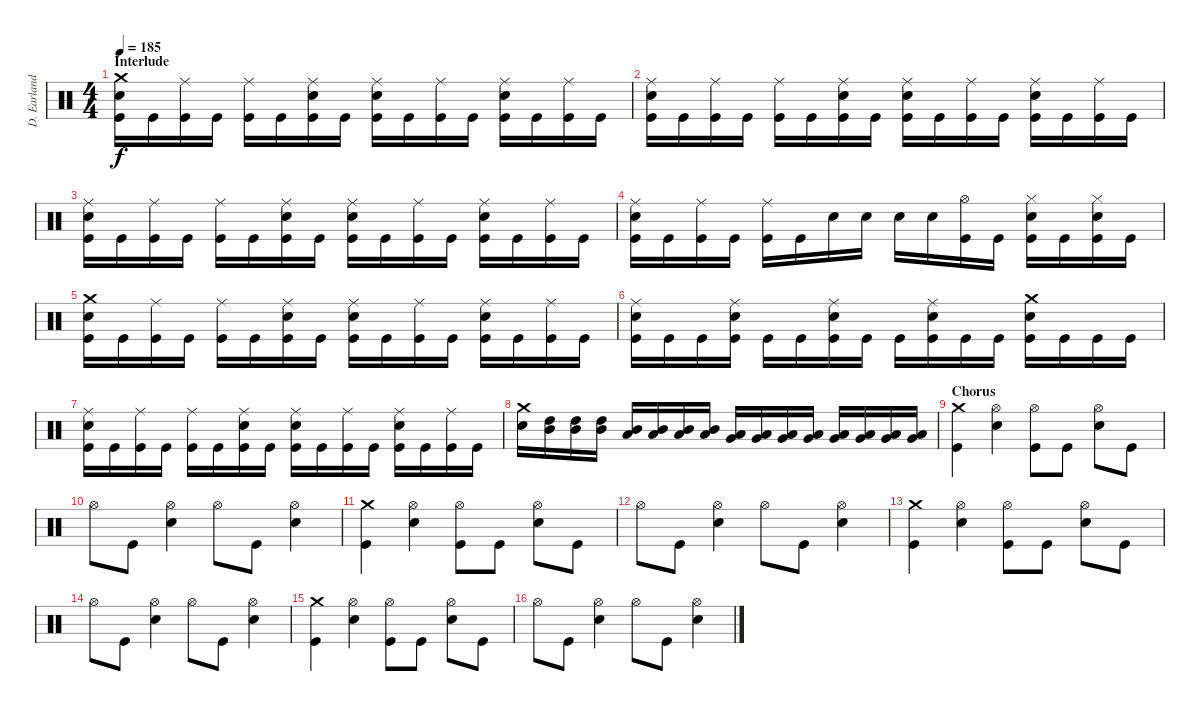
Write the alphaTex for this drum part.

\track ("D. Earlanddson" "D. Earland") {instrument percussion}
\staff {score}
\articulation defaults
\ts (4 4)
\section ("" "Interlude")
\tempo 185
\clef neutral
\ks c
("Crash medium (hit)" "Electric Snare (hit)" "Kick (hit)").16{dy f} "Kick (hit)".16 ("Ride (middle)" "Kick (hit)").16 "Kick (hit)".16 ("Ride (middle)" "Kick (hit)").16 "Kick (hit)".16 ("Ride (middle)" "Electric Snare (hit)" "Kick (hit)").16 "Kick (hit)".16 ("Ride (middle)" "Electric Snare (hit)" "Kick (hit)").16 "Kick (hit)".16 ("Ride (middle)" "Kick (hit)").16 "Kick (hit)".16 ("Ride (middle)" "Electric Snare (hit)" "Kick (hit)").16 "Kick (hit)".16 ("Ride (middle)" "Kick (hit)").16 "Kick (hit)".16 |
("Ride (middle)" "Electric Snare (hit)" "Kick (hit)").16 "Kick (hit)".16 ("Ride (middle)" "Kick (hit)").16 "Kick (hit)".16 ("Ride (middle)" "Kick (hit)").16 "Kick (hit)".16 ("Ride (middle)" "Electric Snare (hit)" "Kick (hit)").16 "Kick (hit)".16 ("Ride (middle)" "Electric Snare (hit)" "Kick (hit)").16 "Kick (hit)".16 ("Ride (middle)" "Kick (hit)").16 "Kick (hit)".16 ("Ride (middle)" "Electric Snare (hit)" "Kick (hit)").16 "Kick (hit)".16 ("Ride (middle)" "Kick (hit)").16 "Kick (hit)".16 |
("Ride (middle)" "Electric Snare (hit)" "Kick (hit)").16 "Kick (hit)".16 ("Ride (middle)" "Kick (hit)").16 "Kick (hit)".16 ("Ride (middle)" "Kick (hit)").16 "Kick (hit)".16 ("Ride (middle)" "Electric Snare (hit)" "Kick (hit)").16 "Kick (hit)".16 ("Ride (middle)" "Electric Snare (hit)" "Kick (hit)").16 "Kick (hit)".16 ("Ride (middle)" "Kick (hit)").16 "Kick (hit)".16 ("Ride (middle)" "Electric Snare (hit)" "Kick (hit)").16 "Kick (hit)".16 ("Ride (middle)" "Kick (hit)").16 "Kick (hit)".16 |
("Ride (middle)" "Electric Snare (hit)" "Kick (hit)").16 "Kick (hit)".16 ("Ride (middle)" "Kick (hit)").16 "Kick (hit)".16 ("Ride (middle)" "Kick (hit)").16 "Kick (hit)".16 "Electric Snare (hit)".16 "Electric Snare (hit)".16 "Electric Snare (hit)".16 "Electric Snare (hit)".16 ("Hi-Hat (open)" "Kick (hit)").16 "Kick (hit)".16 ("Hi-Hat (closed)" "Electric Snare (hit)" "Kick (hit)").16 "Kick (hit)".16 ("Hi-Hat (closed)" "Electric Snare (hit)" "Kick (hit)").16 "Kick (hit)".16 |
("Crash medium (hit)" "Electric Snare (hit)" "Kick (hit)").16 "Kick (hit)".16 ("Ride (middle)" "Kick (hit)").16 "Kick (hit)".16 ("Ride (middle)" "Kick (hit)").16 "Kick (hit)".16 ("Ride (middle)" "Electric Snare (hit)" "Kick (hit)").16 "Kick (hit)".16 ("Ride (middle)" "Electric Snare (hit)" "Kick (hit)").16 "Kick (hit)".16 ("Ride (middle)" "Kick (hit)").16 "Kick (hit)".16 ("Ride (middle)" "Electric Snare (hit)" "Kick (hit)").16 "Kick (hit)".16 ("Ride (middle)" "Kick (hit)").16 "Kick (hit)".16 |
("Ride (middle)" "Electric Snare (hit)" "Kick (hit)").16 "Kick (hit)".16 "Kick (hit)".16 ("Ride (middle)" "Electric Snare (hit)" "Kick (hit)").16 "Kick (hit)".16 "Kick (hit)".16 ("Ride (middle)" "Electric Snare (hit)" "Kick (hit)").16 "Kick (hit)".16 "Kick (hit)".16 ("Ride (middle)" "Electric Snare (hit)" "Kick (hit)").16 "Kick (hit)".16 "Kick (hit)".16 ("Crash medium (hit)" "Electric Snare (hit)" "Kick (hit)").16 "Kick (hit)".16 "Kick (hit)".16 "Kick (hit)".16 |
("Ride (middle)" "Electric Snare (hit)" "Kick (hit)").16 "Kick (hit)".16 ("Ride (middle)" "Kick (hit)").16 "Kick (hit)".16 ("Ride (middle)" "Kick (hit)").16 "Kick (hit)".16 ("Ride (middle)" "Electric Snare (hit)" "Kick (hit)").16 "Kick (hit)".16 ("Ride (middle)" "Electric Snare (hit)" "Kick (hit)").16 "Kick (hit)".16 ("Ride (middle)" "Kick (hit)").16 "Kick (hit)".16 ("Ride (middle)" "Electric Snare (hit)" "Kick (hit)").16 "Kick (hit)".16 ("Ride (middle)" "Kick (hit)").16 "Kick (hit)".16 |
("Crash medium (hit)" "Electric Snare (hit)").16 ("High Tom (hit)" "Mid Tom (hit)").16 ("High Tom (hit)" "Mid Tom (hit)").16 ("High Tom (hit)" "Mid Tom (hit)").16 ("Mid Tom (hit)" "Low Tom (hit)").16 ("Mid Tom (hit)" "Low Tom (hit)").16 ("Mid Tom (hit)" "Low Tom (hit)").16 ("Mid Tom (hit)" "Low Tom (hit)").16 ("Low Tom (hit)" "Very Low Tom (hit)").16 ("Low Tom (hit)" "Very Low Tom (hit)").16 ("Low Tom (hit)" "Very Low Tom (hit)").16 ("Low Tom (hit)" "Very Low Tom (hit)").16 ("Very Low Tom (hit)" "Low Floor Tom (hit)").16 ("Very Low Tom (hit)" "Low Floor Tom (hit)").16 ("Very Low Tom (hit)" "Low Floor Tom (hit)").16 ("Very Low Tom (hit)" "Low Floor Tom (hit)").16 |
\section ("" "Chorus")
("Crash medium (hit)" "Kick (hit)").4 ("Hi-Hat (open)" "Electric Snare (hit)").4 ("Hi-Hat (open)" "Kick (hit)").8 "Kick (hit)".8 ("Hi-Hat (open)" "Electric Snare (hit)").8 "Kick (hit)".8 |
"Hi-Hat (open)".8 "Kick (hit)".8 ("Hi-Hat (open)" "Electric Snare (hit)").4 "Hi-Hat (open)".8 "Kick (hit)".8 ("Hi-Hat (open)" "Electric Snare (hit)").4 |
("Crash medium (hit)" "Kick (hit)").4 ("Hi-Hat (open)" "Electric Snare (hit)").4 ("Hi-Hat (open)" "Kick (hit)").8 "Kick (hit)".8 ("Hi-Hat (open)" "Electric Snare (hit)").8 "Kick (hit)".8 |
"Hi-Hat (open)".8 "Kick (hit)".8 ("Hi-Hat (open)" "Electric Snare (hit)").4 "Hi-Hat (open)".8 "Kick (hit)".8 ("Hi-Hat (open)" "Electric Snare (hit)").4 |
("Crash medium (hit)" "Kick (hit)").4 ("Hi-Hat (open)" "Electric Snare (hit)").4 ("Hi-Hat (open)" "Kick (hit)").8 "Kick (hit)".8 ("Hi-Hat (open)" "Electric Snare (hit)").8 "Kick (hit)".8 |
"Hi-Hat (open)".8 "Kick (hit)".8 ("Hi-Hat (open)" "Electric Snare (hit)").4 "Hi-Hat (open)".8 "Kick (hit)".8 ("Hi-Hat (open)" "Electric Snare (hit)").4 |
("Crash medium (hit)" "Kick (hit)").4 ("Hi-Hat (open)" "Electric Snare (hit)").4 ("Hi-Hat (open)" "Kick (hit)").8 "Kick (hit)".8 ("Hi-Hat (open)" "Electric Snare (hit)").8 "Kick (hit)".8 |
"Hi-Hat (open)".8 "Kick (hit)".8 ("Hi-Hat (open)" "Electric Snare (hit)").4 "Hi-Hat (open)".8 "Kick (hit)".8 ("Hi-Hat (open)" "Electric Snare (hit)").4
